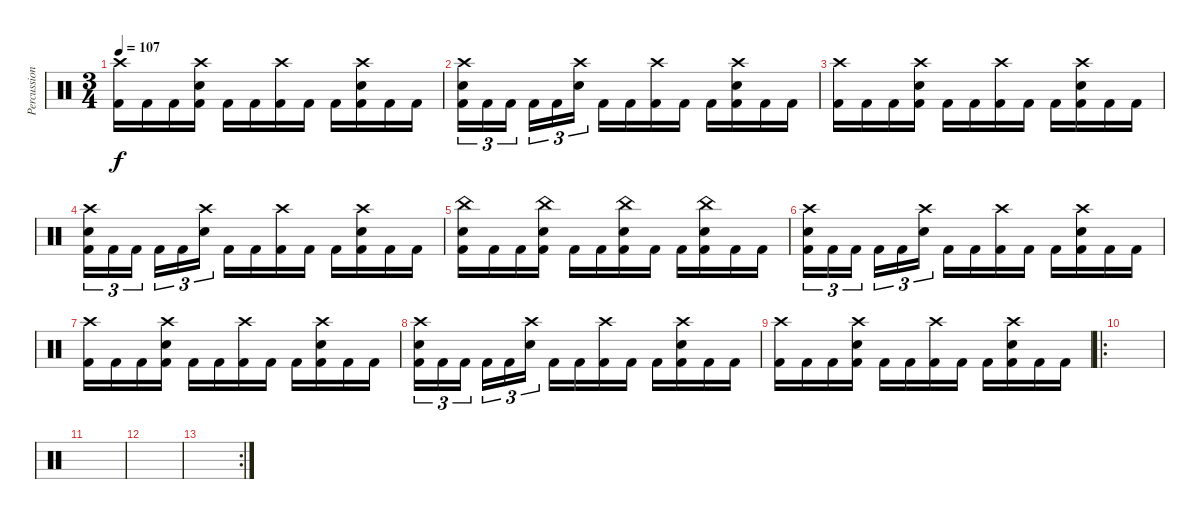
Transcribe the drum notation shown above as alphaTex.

\track ("Percussion" "Percussion") {instrument percussion}
\staff {score}
\articulation defaults
\ts (3 4)
\tempo 107
\clef neutral
\ks c
("Crash high (hit)" "Kick (hit) 2").16{dy f} "Kick (hit) 2".16 "Kick (hit) 2".16 ("Crash high (hit)" "Electric Snare (hit)" "Kick (hit) 2").16 "Kick (hit) 2".16 "Kick (hit) 2".16 ("Crash high (hit)" "Kick (hit) 2").16 "Kick (hit) 2".16 "Kick (hit) 2".16 ("Crash high (hit)" "Electric Snare (hit)" "Kick (hit) 2").16 "Kick (hit) 2".16 "Kick (hit) 2".16 |
("Crash high (hit)" "Electric Snare (hit)" "Kick (hit) 2").16{tu (3 2)} "Kick (hit) 2".16{tu (3 2)} "Kick (hit) 2".16{tu (3 2) beam splitsecondary} "Kick (hit) 2".16{tu (3 2)} "Kick (hit) 2".16{tu (3 2)} ("Crash high (hit)" "Electric Snare (hit)").16{tu (3 2)} "Kick (hit) 2".16 "Kick (hit) 2".16 ("Crash high (hit)" "Kick (hit) 2").16 "Kick (hit) 2".16 "Kick (hit) 2".16 ("Crash high (hit)" "Electric Snare (hit)" "Kick (hit) 2").16 "Kick (hit) 2".16 "Kick (hit) 2".16 |
("Crash high (hit)" "Kick (hit) 2").16 "Kick (hit) 2".16 "Kick (hit) 2".16 ("Crash high (hit)" "Electric Snare (hit)" "Kick (hit) 2").16 "Kick (hit) 2".16 "Kick (hit) 2".16 ("Crash high (hit)" "Kick (hit) 2").16 "Kick (hit) 2".16 "Kick (hit) 2".16 ("Crash high (hit)" "Electric Snare (hit)" "Kick (hit) 2").16 "Kick (hit) 2".16 "Kick (hit) 2".16 |
("Crash high (hit)" "Electric Snare (hit)" "Kick (hit) 2").16{tu (3 2)} "Kick (hit) 2".16{tu (3 2)} "Kick (hit) 2".16{tu (3 2) beam splitsecondary} "Kick (hit) 2".16{tu (3 2)} "Kick (hit) 2".16{tu (3 2)} ("Crash high (hit)" "Electric Snare (hit)").16{tu (3 2)} "Kick (hit) 2".16 "Kick (hit) 2".16 ("Crash high (hit)" "Kick (hit) 2").16 "Kick (hit) 2".16 "Kick (hit) 2".16 ("Crash high (hit)" "Electric Snare (hit)" "Kick (hit) 2").16 "Kick (hit) 2".16 "Kick (hit) 2".16 |
("Electric Snare (hit)" "China (hit)" "Kick (hit) 2").16 "Kick (hit) 2".16 "Kick (hit) 2".16 ("Electric Snare (hit)" "China (hit)" "Kick (hit) 2").16 "Kick (hit) 2".16 "Kick (hit) 2".16 ("Electric Snare (hit)" "China (hit)" "Kick (hit) 2").16 "Kick (hit) 2".16 "Kick (hit) 2".16 ("Electric Snare (hit)" "China (hit)" "Kick (hit) 2").16 "Kick (hit) 2".16 "Kick (hit) 2".16 |
("Crash high (hit)" "Electric Snare (hit)" "Kick (hit) 2").16{tu (3 2)} "Kick (hit) 2".16{tu (3 2)} "Kick (hit) 2".16{tu (3 2) beam splitsecondary} "Kick (hit) 2".16{tu (3 2)} "Kick (hit) 2".16{tu (3 2)} ("Crash high (hit)" "Electric Snare (hit)").16{tu (3 2)} "Kick (hit) 2".16 "Kick (hit) 2".16 ("Crash high (hit)" "Kick (hit) 2").16 "Kick (hit) 2".16 "Kick (hit) 2".16 ("Crash high (hit)" "Electric Snare (hit)" "Kick (hit) 2").16 "Kick (hit) 2".16 "Kick (hit) 2".16 |
("Crash high (hit)" "Kick (hit) 2").16 "Kick (hit) 2".16 "Kick (hit) 2".16 ("Crash high (hit)" "Electric Snare (hit)" "Kick (hit) 2").16 "Kick (hit) 2".16 "Kick (hit) 2".16 ("Crash high (hit)" "Kick (hit) 2").16 "Kick (hit) 2".16 "Kick (hit) 2".16 ("Crash high (hit)" "Electric Snare (hit)" "Kick (hit) 2").16 "Kick (hit) 2".16 "Kick (hit) 2".16 |
("Crash high (hit)" "Electric Snare (hit)" "Kick (hit) 2").16{tu (3 2)} "Kick (hit) 2".16{tu (3 2)} "Kick (hit) 2".16{tu (3 2) beam splitsecondary} "Kick (hit) 2".16{tu (3 2)} "Kick (hit) 2".16{tu (3 2)} ("Crash high (hit)" "Electric Snare (hit)").16{tu (3 2)} "Kick (hit) 2".16 "Kick (hit) 2".16 ("Crash high (hit)" "Kick (hit) 2").16 "Kick (hit) 2".16 "Kick (hit) 2".16 ("Crash high (hit)" "Electric Snare (hit)" "Kick (hit) 2").16 "Kick (hit) 2".16 "Kick (hit) 2".16 |
("Crash high (hit)" "Kick (hit) 2").16 "Kick (hit) 2".16 "Kick (hit) 2".16 ("Crash high (hit)" "Electric Snare (hit)" "Kick (hit) 2").16 "Kick (hit) 2".16 "Kick (hit) 2".16 ("Crash high (hit)" "Kick (hit) 2").16 "Kick (hit) 2".16 "Kick (hit) 2".16 ("Crash high (hit)" "Electric Snare (hit)" "Kick (hit) 2").16 "Kick (hit) 2".16 "Kick (hit) 2".16 |
\ro
|
|
|
\rc 2
